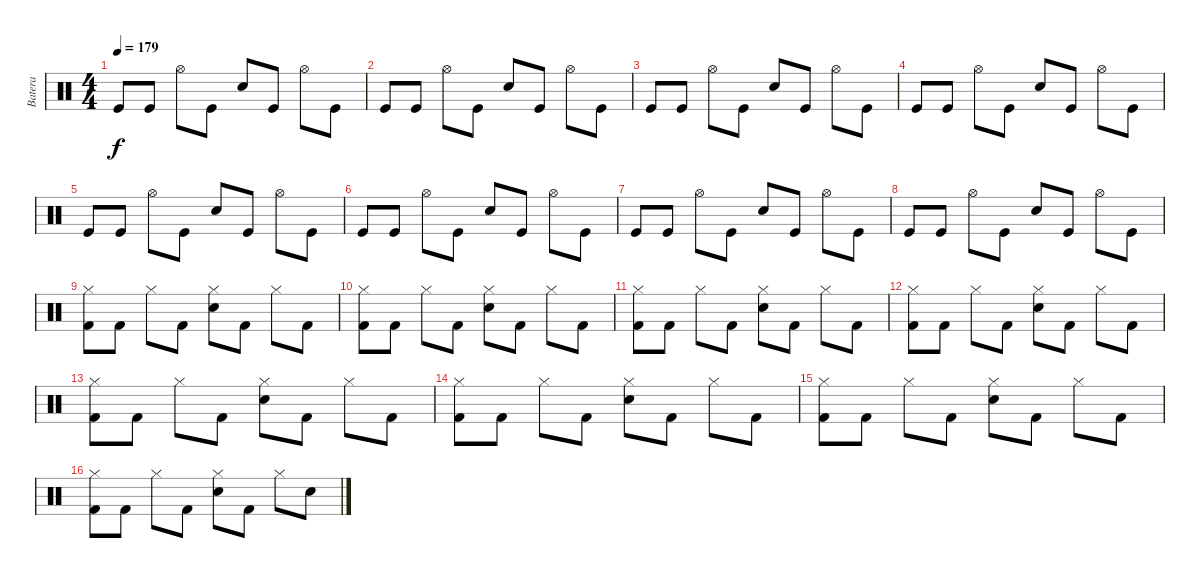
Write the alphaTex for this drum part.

\track ("Batera" "Batera") {instrument percussion}
\staff {score}
\articulation defaults
\ts (4 4)
\tempo 179
\clef neutral
\ks c "Kick (hit)".8{dy f volume 7} "Kick (hit)".8 "Hi-Hat (open)".8 "Kick (hit)".8 "Snare (hit) 2".8 "Kick (hit)".8 "Hi-Hat (open)".8 "Kick (hit)".8
|
"Kick (hit)".8 "Kick (hit)".8 "Hi-Hat (open)".8 "Kick (hit)".8 "Snare (hit) 2".8 "Kick (hit)".8 "Hi-Hat (open)".8 "Kick (hit)".8 |
"Kick (hit)".8 "Kick (hit)".8 "Hi-Hat (open)".8 "Kick (hit)".8 "Snare (hit) 2".8 "Kick (hit)".8 "Hi-Hat (open)".8 "Kick (hit)".8 |
"Kick (hit)".8 "Kick (hit)".8 "Hi-Hat (open)".8 "Kick (hit)".8 "Snare (hit) 2".8 "Kick (hit)".8 "Hi-Hat (open)".8 "Kick (hit)".8 |
"Kick (hit)".8 "Kick (hit)".8 "Hi-Hat (open)".8 "Kick (hit)".8 "Snare (hit) 2".8 "Kick (hit)".8 "Hi-Hat (open)".8 "Kick (hit)".8 |
"Kick (hit)".8 "Kick (hit)".8 "Hi-Hat (open)".8 "Kick (hit)".8 "Snare (hit) 2".8 "Kick (hit)".8 "Hi-Hat (open)".8 "Kick (hit)".8 |
"Kick (hit)".8 "Kick (hit)".8 "Hi-Hat (open)".8 "Kick (hit)".8 "Snare (hit) 2".8 "Kick (hit)".8 "Hi-Hat (open)".8 "Kick (hit)".8 |
"Kick (hit)".8 "Kick (hit)".8 "Hi-Hat (open)".8 "Kick (hit)".8 "Snare (hit) 2".8 "Kick (hit)".8 "Hi-Hat (open)".8 "Kick (hit)".8 |
("Hi-Hat (closed)" "Kick (hit) 2").8{volume 16} "Kick (hit) 2".8 "Hi-Hat (closed)".8 "Kick (hit) 2".8 ("Hi-Hat (closed)" "Electric Snare (hit)").8 "Kick (hit) 2".8 "Hi-Hat (closed)".8 "Kick (hit) 2".8 |
("Hi-Hat (closed)" "Kick (hit) 2").8 "Kick (hit) 2".8 "Hi-Hat (closed)".8 "Kick (hit) 2".8 ("Hi-Hat (closed)" "Electric Snare (hit)").8 "Kick (hit) 2".8 "Hi-Hat (closed)".8 "Kick (hit) 2".8 |
("Hi-Hat (closed)" "Kick (hit) 2").8 "Kick (hit) 2".8 "Hi-Hat (closed)".8 "Kick (hit) 2".8 ("Hi-Hat (closed)" "Electric Snare (hit)").8 "Kick (hit) 2".8 "Hi-Hat (closed)".8 "Kick (hit) 2".8 |
("Hi-Hat (closed)" "Kick (hit) 2").8 "Kick (hit) 2".8 "Hi-Hat (closed)".8 "Kick (hit) 2".8 ("Hi-Hat (closed)" "Electric Snare (hit)").8 "Kick (hit) 2".8 "Hi-Hat (closed)".8 "Kick (hit) 2".8 |
("Hi-Hat (closed)" "Kick (hit) 2").8 "Kick (hit) 2".8 "Hi-Hat (closed)".8 "Kick (hit) 2".8 ("Hi-Hat (closed)" "Electric Snare (hit)").8 "Kick (hit) 2".8 "Hi-Hat (closed)".8 "Kick (hit) 2".8 |
("Hi-Hat (closed)" "Kick (hit) 2").8 "Kick (hit) 2".8 "Hi-Hat (closed)".8 "Kick (hit) 2".8 ("Hi-Hat (closed)" "Electric Snare (hit)").8 "Kick (hit) 2".8 "Hi-Hat (closed)".8 "Kick (hit) 2".8 |
("Hi-Hat (closed)" "Kick (hit) 2").8 "Kick (hit) 2".8 "Hi-Hat (closed)".8 "Kick (hit) 2".8 ("Hi-Hat (closed)" "Electric Snare (hit)").8 "Kick (hit) 2".8 "Hi-Hat (closed)".8 "Kick (hit) 2".8 |
("Hi-Hat (closed)" "Kick (hit) 2").8 "Kick (hit) 2".8 "Hi-Hat (closed)".8 "Kick (hit) 2".8 ("Hi-Hat (closed)" "Electric Snare (hit)").8 "Kick (hit) 2".8 "Hi-Hat (closed)".8 "Electric Snare (hit)".8
